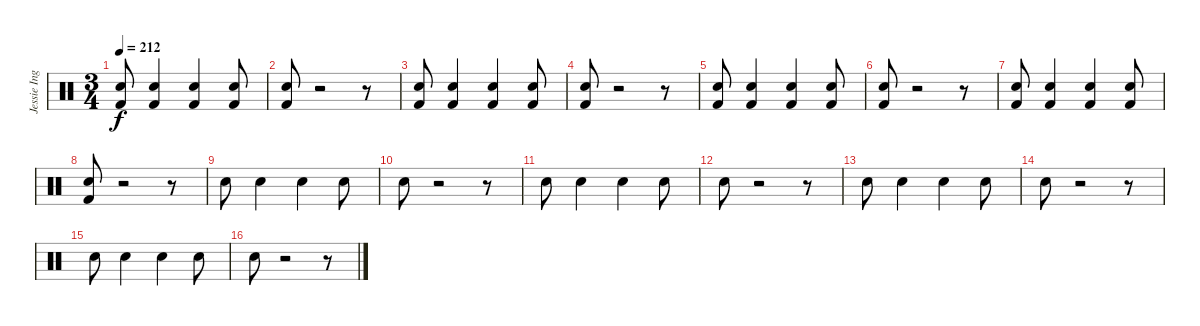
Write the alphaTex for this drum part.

\track ("Jessie Ingelevics" "Jessie Ing") {instrument percussion}
\staff {score}
\articulation defaults
\ts (3 4)
\tempo 212
\clef neutral
\ks c
("Electric Snare (hit)" "Kick (hit) 2").8{dy f} ("Electric Snare (hit)" "Kick (hit) 2").4 ("Electric Snare (hit)" "Kick (hit) 2").4 ("Electric Snare (hit)" "Kick (hit) 2").8 |
("Electric Snare (hit)" "Kick (hit) 2").8 r.2 r.8 |
("Electric Snare (hit)" "Kick (hit) 2").8 ("Electric Snare (hit)" "Kick (hit) 2").4 ("Electric Snare (hit)" "Kick (hit) 2").4 ("Electric Snare (hit)" "Kick (hit) 2").8 |
("Electric Snare (hit)" "Kick (hit) 2").8 r.2 r.8 |
("Electric Snare (hit)" "Kick (hit) 2").8 ("Electric Snare (hit)" "Kick (hit) 2").4 ("Electric Snare (hit)" "Kick (hit) 2").4 ("Electric Snare (hit)" "Kick (hit) 2").8 |
("Electric Snare (hit)" "Kick (hit) 2").8 r.2 r.8 |
("Electric Snare (hit)" "Kick (hit) 2").8 ("Electric Snare (hit)" "Kick (hit) 2").4 ("Electric Snare (hit)" "Kick (hit) 2").4 ("Electric Snare (hit)" "Kick (hit) 2").8 |
("Electric Snare (hit)" "Kick (hit) 2").8 r.2 r.8 |
"Electric Snare (hit)".8 "Electric Snare (hit)".4 "Electric Snare (hit)".4 "Electric Snare (hit)".8 |
"Electric Snare (hit)".8 r.2 r.8 |
"Electric Snare (hit)".8 "Electric Snare (hit)".4 "Electric Snare (hit)".4 "Electric Snare (hit)".8 |
"Electric Snare (hit)".8 r.2 r.8 |
"Electric Snare (hit)".8 "Electric Snare (hit)".4 "Electric Snare (hit)".4 "Electric Snare (hit)".8 |
"Electric Snare (hit)".8 r.2 r.8 |
"Electric Snare (hit)".8 "Electric Snare (hit)".4 "Electric Snare (hit)".4 "Electric Snare (hit)".8 |
"Electric Snare (hit)".8 r.2 r.8
